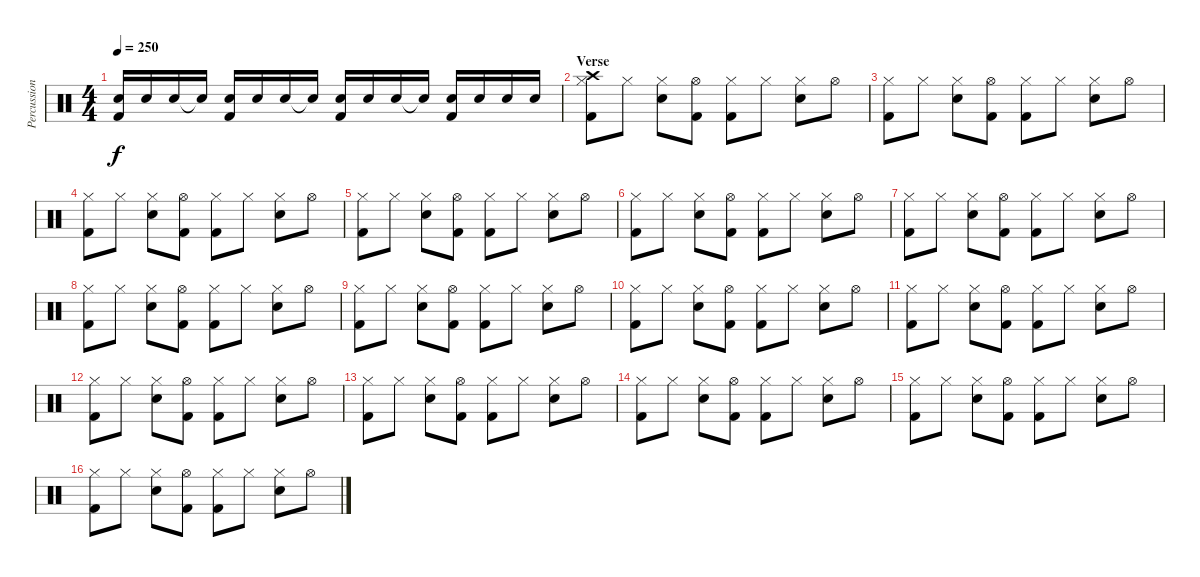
\track ("Percussion" "Percussion") {instrument percussion}
\staff {score}
\articulation defaults
\ts (4 4)
\tempo 250
\clef neutral
\ks c
("Electric Snare (hit)" "Kick (hit) 2").16{dy f} "Electric Snare (hit)".16 "Electric Snare (hit)".16 "Electric Snare (hit)"{t}.16 ("Electric Snare (hit)" "Kick (hit) 2").16 "Electric Snare (hit)".16 "Electric Snare (hit)".16 "Electric Snare (hit)"{t}.16 ("Electric Snare (hit)" "Kick (hit) 2").16 "Electric Snare (hit)".16 "Electric Snare (hit)".16 "Electric Snare (hit)"{t}.16 ("Electric Snare (hit)" "Kick (hit) 2").16 "Electric Snare (hit)".16 "Electric Snare (hit)".16 "Electric Snare (hit)".16 |
\section ("" "Verse")
("Crash high (hit)" "Hi-Hat (closed)" "Kick (hit) 2").8 "Hi-Hat (closed)".8 ("Hi-Hat (closed)" "Electric Snare (hit)").8 ("Hi-Hat (open)" "Kick (hit) 2").8 ("Hi-Hat (closed)" "Kick (hit) 2").8 "Hi-Hat (closed)".8 ("Hi-Hat (closed)" "Electric Snare (hit)").8 "Hi-Hat (open)".8 |
("Hi-Hat (closed)" "Kick (hit) 2").8 "Hi-Hat (closed)".8 ("Hi-Hat (closed)" "Electric Snare (hit)").8 ("Hi-Hat (open)" "Kick (hit) 2").8 ("Hi-Hat (closed)" "Kick (hit) 2").8 "Hi-Hat (closed)".8 ("Hi-Hat (closed)" "Electric Snare (hit)").8 "Hi-Hat (open)".8 |
("Hi-Hat (closed)" "Kick (hit) 2").8 "Hi-Hat (closed)".8 ("Hi-Hat (closed)" "Electric Snare (hit)").8 ("Hi-Hat (open)" "Kick (hit) 2").8 ("Hi-Hat (closed)" "Kick (hit) 2").8 "Hi-Hat (closed)".8 ("Hi-Hat (closed)" "Electric Snare (hit)").8 "Hi-Hat (open)".8 |
("Hi-Hat (closed)" "Kick (hit) 2").8 "Hi-Hat (closed)".8 ("Hi-Hat (closed)" "Electric Snare (hit)").8 ("Hi-Hat (open)" "Kick (hit) 2").8 ("Hi-Hat (closed)" "Kick (hit) 2").8 "Hi-Hat (closed)".8 ("Hi-Hat (closed)" "Electric Snare (hit)").8 "Hi-Hat (open)".8 |
("Hi-Hat (closed)" "Kick (hit) 2").8 "Hi-Hat (closed)".8 ("Hi-Hat (closed)" "Electric Snare (hit)").8 ("Hi-Hat (open)" "Kick (hit) 2").8 ("Hi-Hat (closed)" "Kick (hit) 2").8 "Hi-Hat (closed)".8 ("Hi-Hat (closed)" "Electric Snare (hit)").8 "Hi-Hat (open)".8 |
("Hi-Hat (closed)" "Kick (hit) 2").8 "Hi-Hat (closed)".8 ("Hi-Hat (closed)" "Electric Snare (hit)").8 ("Hi-Hat (open)" "Kick (hit) 2").8 ("Hi-Hat (closed)" "Kick (hit) 2").8 "Hi-Hat (closed)".8 ("Hi-Hat (closed)" "Electric Snare (hit)").8 "Hi-Hat (open)".8 |
("Hi-Hat (closed)" "Kick (hit) 2").8 "Hi-Hat (closed)".8 ("Hi-Hat (closed)" "Electric Snare (hit)").8 ("Hi-Hat (open)" "Kick (hit) 2").8 ("Hi-Hat (closed)" "Kick (hit) 2").8 "Hi-Hat (closed)".8 ("Hi-Hat (closed)" "Electric Snare (hit)").8 "Hi-Hat (open)".8 |
("Hi-Hat (closed)" "Kick (hit) 2").8 "Hi-Hat (closed)".8 ("Hi-Hat (closed)" "Electric Snare (hit)").8 ("Hi-Hat (open)" "Kick (hit) 2").8 ("Hi-Hat (closed)" "Kick (hit) 2").8 "Hi-Hat (closed)".8 ("Hi-Hat (closed)" "Electric Snare (hit)").8 "Hi-Hat (open)".8 |
("Hi-Hat (closed)" "Kick (hit) 2").8 "Hi-Hat (closed)".8 ("Hi-Hat (closed)" "Electric Snare (hit)").8 ("Hi-Hat (open)" "Kick (hit) 2").8 ("Hi-Hat (closed)" "Kick (hit) 2").8 "Hi-Hat (closed)".8 ("Hi-Hat (closed)" "Electric Snare (hit)").8 "Hi-Hat (open)".8 |
("Hi-Hat (closed)" "Kick (hit) 2").8 "Hi-Hat (closed)".8 ("Hi-Hat (closed)" "Electric Snare (hit)").8 ("Hi-Hat (open)" "Kick (hit) 2").8 ("Hi-Hat (closed)" "Kick (hit) 2").8 "Hi-Hat (closed)".8 ("Hi-Hat (closed)" "Electric Snare (hit)").8 "Hi-Hat (open)".8 |
("Hi-Hat (closed)" "Kick (hit) 2").8 "Hi-Hat (closed)".8 ("Hi-Hat (closed)" "Electric Snare (hit)").8 ("Hi-Hat (open)" "Kick (hit) 2").8 ("Hi-Hat (closed)" "Kick (hit) 2").8 "Hi-Hat (closed)".8 ("Hi-Hat (closed)" "Electric Snare (hit)").8 "Hi-Hat (open)".8 |
("Hi-Hat (closed)" "Kick (hit) 2").8 "Hi-Hat (closed)".8 ("Hi-Hat (closed)" "Electric Snare (hit)").8 ("Hi-Hat (open)" "Kick (hit) 2").8 ("Hi-Hat (closed)" "Kick (hit) 2").8 "Hi-Hat (closed)".8 ("Hi-Hat (closed)" "Electric Snare (hit)").8 "Hi-Hat (open)".8 |
("Hi-Hat (closed)" "Kick (hit) 2").8 "Hi-Hat (closed)".8 ("Hi-Hat (closed)" "Electric Snare (hit)").8 ("Hi-Hat (open)" "Kick (hit) 2").8 ("Hi-Hat (closed)" "Kick (hit) 2").8 "Hi-Hat (closed)".8 ("Hi-Hat (closed)" "Electric Snare (hit)").8 "Hi-Hat (open)".8 |
("Hi-Hat (closed)" "Kick (hit) 2").8 "Hi-Hat (closed)".8 ("Hi-Hat (closed)" "Electric Snare (hit)").8 ("Hi-Hat (open)" "Kick (hit) 2").8 ("Hi-Hat (closed)" "Kick (hit) 2").8 "Hi-Hat (closed)".8 ("Hi-Hat (closed)" "Electric Snare (hit)").8 "Hi-Hat (open)".8 |
("Hi-Hat (closed)" "Kick (hit) 2").8 "Hi-Hat (closed)".8 ("Hi-Hat (closed)" "Electric Snare (hit)").8 ("Hi-Hat (open)" "Kick (hit) 2").8 ("Hi-Hat (closed)" "Kick (hit) 2").8 "Hi-Hat (closed)".8 ("Hi-Hat (closed)" "Electric Snare (hit)").8 "Hi-Hat (open)".8
